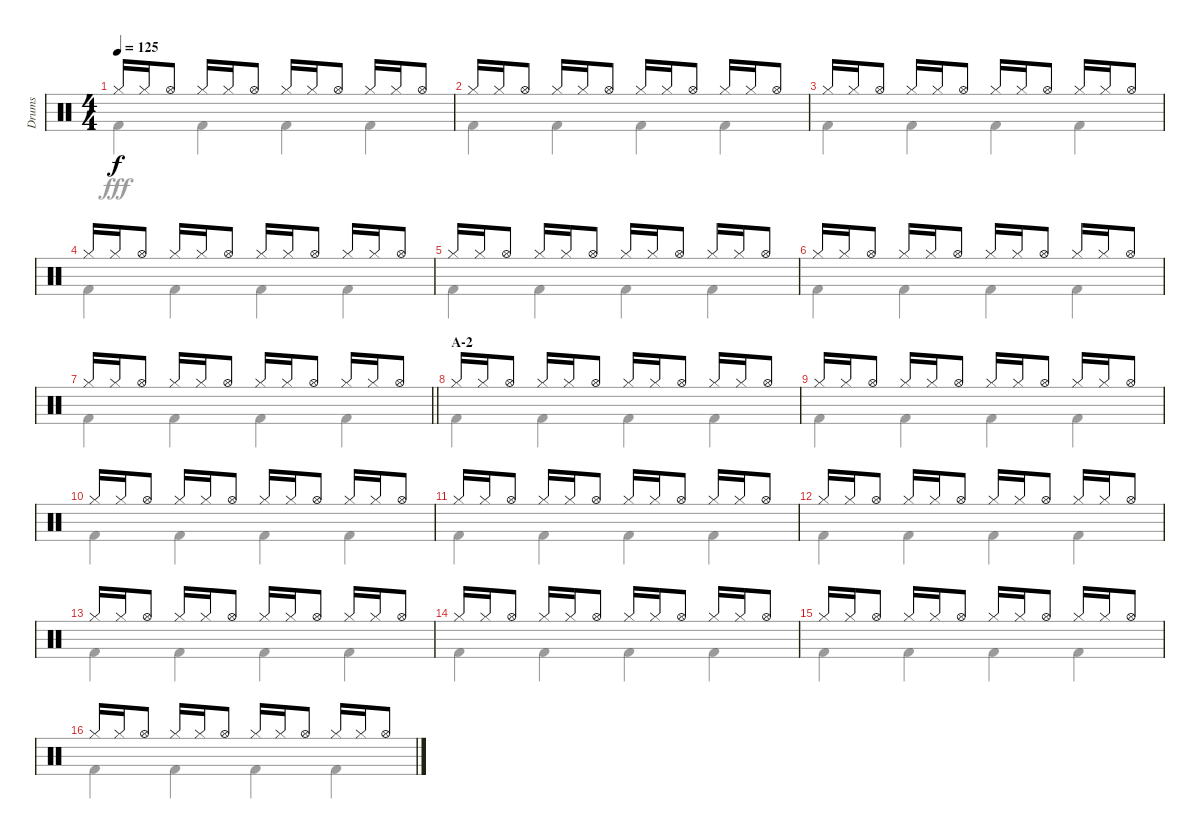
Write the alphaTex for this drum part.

\track ("Drums" "Drums") {instrument percussion}
\staff {score}
\articulation defaults
\voice
\ts (4 4)
\tempo 125
\clef neutral
\ks c "Hi-Hat (closed)".16{dy f} "Hi-Hat (closed)".16 "Hi-Hat (open)".8 "Hi-Hat (closed)".16 "Hi-Hat (closed)".16 "Hi-Hat (open)".8 "Hi-Hat (closed)".16 "Hi-Hat (closed)".16 "Hi-Hat (open)".8 "Hi-Hat (closed)".16 "Hi-Hat (closed)".16 "Hi-Hat (open)".8
|
"Hi-Hat (closed)".16 "Hi-Hat (closed)".16 "Hi-Hat (open)".8 "Hi-Hat (closed)".16 "Hi-Hat (closed)".16 "Hi-Hat (open)".8 "Hi-Hat (closed)".16 "Hi-Hat (closed)".16 "Hi-Hat (open)".8 "Hi-Hat (closed)".16 "Hi-Hat (closed)".16 "Hi-Hat (open)".8 |
"Hi-Hat (closed)".16 "Hi-Hat (closed)".16 "Hi-Hat (open)".8 "Hi-Hat (closed)".16 "Hi-Hat (closed)".16 "Hi-Hat (open)".8 "Hi-Hat (closed)".16 "Hi-Hat (closed)".16 "Hi-Hat (open)".8 "Hi-Hat (closed)".16 "Hi-Hat (closed)".16 "Hi-Hat (open)".8 |
"Hi-Hat (closed)".16 "Hi-Hat (closed)".16 "Hi-Hat (open)".8 "Hi-Hat (closed)".16 "Hi-Hat (closed)".16 "Hi-Hat (open)".8 "Hi-Hat (closed)".16 "Hi-Hat (closed)".16 "Hi-Hat (open)".8 "Hi-Hat (closed)".16 "Hi-Hat (closed)".16 "Hi-Hat (open)".8 |
"Hi-Hat (closed)".16 "Hi-Hat (closed)".16 "Hi-Hat (open)".8 "Hi-Hat (closed)".16 "Hi-Hat (closed)".16 "Hi-Hat (open)".8 "Hi-Hat (closed)".16 "Hi-Hat (closed)".16 "Hi-Hat (open)".8 "Hi-Hat (closed)".16 "Hi-Hat (closed)".16 "Hi-Hat (open)".8 |
"Hi-Hat (closed)".16 "Hi-Hat (closed)".16 "Hi-Hat (open)".8 "Hi-Hat (closed)".16 "Hi-Hat (closed)".16 "Hi-Hat (open)".8 "Hi-Hat (closed)".16 "Hi-Hat (closed)".16 "Hi-Hat (open)".8 "Hi-Hat (closed)".16 "Hi-Hat (closed)".16 "Hi-Hat (open)".8 |
\barLineRight lightlight "Hi-Hat (closed)".16 "Hi-Hat (closed)".16 "Hi-Hat (open)".8 "Hi-Hat (closed)".16 "Hi-Hat (closed)".16 "Hi-Hat (open)".8 "Hi-Hat (closed)".16 "Hi-Hat (closed)".16 "Hi-Hat (open)".8 "Hi-Hat (closed)".16 "Hi-Hat (closed)".16 "Hi-Hat (open)".8
|
\section ("" "A-2")
"Hi-Hat (closed)".16 "Hi-Hat (closed)".16 "Hi-Hat (open)".8 "Hi-Hat (closed)".16 "Hi-Hat (closed)".16 "Hi-Hat (open)".8 "Hi-Hat (closed)".16 "Hi-Hat (closed)".16 "Hi-Hat (open)".8 "Hi-Hat (closed)".16 "Hi-Hat (closed)".16 "Hi-Hat (open)".8 |
"Hi-Hat (closed)".16 "Hi-Hat (closed)".16 "Hi-Hat (open)".8 "Hi-Hat (closed)".16 "Hi-Hat (closed)".16 "Hi-Hat (open)".8 "Hi-Hat (closed)".16 "Hi-Hat (closed)".16 "Hi-Hat (open)".8 "Hi-Hat (closed)".16 "Hi-Hat (closed)".16 "Hi-Hat (open)".8 |
"Hi-Hat (closed)".16 "Hi-Hat (closed)".16 "Hi-Hat (open)".8 "Hi-Hat (closed)".16 "Hi-Hat (closed)".16 "Hi-Hat (open)".8 "Hi-Hat (closed)".16 "Hi-Hat (closed)".16 "Hi-Hat (open)".8 "Hi-Hat (closed)".16 "Hi-Hat (closed)".16 "Hi-Hat (open)".8 |
"Hi-Hat (closed)".16 "Hi-Hat (closed)".16 "Hi-Hat (open)".8 "Hi-Hat (closed)".16 "Hi-Hat (closed)".16 "Hi-Hat (open)".8 "Hi-Hat (closed)".16 "Hi-Hat (closed)".16 "Hi-Hat (open)".8 "Hi-Hat (closed)".16 "Hi-Hat (closed)".16 "Hi-Hat (open)".8 |
"Hi-Hat (closed)".16 "Hi-Hat (closed)".16 "Hi-Hat (open)".8 "Hi-Hat (closed)".16 "Hi-Hat (closed)".16 "Hi-Hat (open)".8 "Hi-Hat (closed)".16 "Hi-Hat (closed)".16 "Hi-Hat (open)".8 "Hi-Hat (closed)".16 "Hi-Hat (closed)".16 "Hi-Hat (open)".8 |
"Hi-Hat (closed)".16 "Hi-Hat (closed)".16 "Hi-Hat (open)".8 "Hi-Hat (closed)".16 "Hi-Hat (closed)".16 "Hi-Hat (open)".8 "Hi-Hat (closed)".16 "Hi-Hat (closed)".16 "Hi-Hat (open)".8 "Hi-Hat (closed)".16 "Hi-Hat (closed)".16 "Hi-Hat (open)".8 |
"Hi-Hat (closed)".16 "Hi-Hat (closed)".16 "Hi-Hat (open)".8 "Hi-Hat (closed)".16 "Hi-Hat (closed)".16 "Hi-Hat (open)".8 "Hi-Hat (closed)".16 "Hi-Hat (closed)".16 "Hi-Hat (open)".8 "Hi-Hat (closed)".16 "Hi-Hat (closed)".16 "Hi-Hat (open)".8 |
"Hi-Hat (closed)".16 "Hi-Hat (closed)".16 "Hi-Hat (open)".8 "Hi-Hat (closed)".16 "Hi-Hat (closed)".16 "Hi-Hat (open)".8 "Hi-Hat (closed)".16 "Hi-Hat (closed)".16 "Hi-Hat (open)".8 "Hi-Hat (closed)".16 "Hi-Hat (closed)".16 "Hi-Hat (open)".8 |
"Hi-Hat (closed)".16 "Hi-Hat (closed)".16 "Hi-Hat (open)".8 "Hi-Hat (closed)".16 "Hi-Hat (closed)".16 "Hi-Hat (open)".8 "Hi-Hat (closed)".16 "Hi-Hat (closed)".16 "Hi-Hat (open)".8 "Hi-Hat (closed)".16 "Hi-Hat (closed)".16 "Hi-Hat (open)".8
\voice
\clef neutral
\ottava regular
\simile none
\ks c "Kick (hit) 2".4{dy fff} "Kick (hit) 2".4 "Kick (hit) 2".4 "Kick (hit) 2".4
|
"Kick (hit) 2".4 "Kick (hit) 2".4 "Kick (hit) 2".4 "Kick (hit) 2".4 |
"Kick (hit) 2".4 "Kick (hit) 2".4 "Kick (hit) 2".4 "Kick (hit) 2".4 |
"Kick (hit) 2".4 "Kick (hit) 2".4 "Kick (hit) 2".4 "Kick (hit) 2".4 |
"Kick (hit) 2".4 "Kick (hit) 2".4 "Kick (hit) 2".4 "Kick (hit) 2".4 |
"Kick (hit) 2".4 "Kick (hit) 2".4 "Kick (hit) 2".4 "Kick (hit) 2".4 |
\barLineRight lightlight "Kick (hit) 2".4 "Kick (hit) 2".4 "Kick (hit) 2".4 "Kick (hit) 2".4
|
"Kick (hit) 2".4 "Kick (hit) 2".4 "Kick (hit) 2".4 "Kick (hit) 2".4 |
"Kick (hit) 2".4 "Kick (hit) 2".4 "Kick (hit) 2".4 "Kick (hit) 2".4 |
"Kick (hit) 2".4 "Kick (hit) 2".4 "Kick (hit) 2".4 "Kick (hit) 2".4 |
"Kick (hit) 2".4 "Kick (hit) 2".4 "Kick (hit) 2".4 "Kick (hit) 2".4 |
"Kick (hit) 2".4 "Kick (hit) 2".4 "Kick (hit) 2".4 "Kick (hit) 2".4 |
"Kick (hit) 2".4 "Kick (hit) 2".4 "Kick (hit) 2".4 "Kick (hit) 2".4 |
"Kick (hit) 2".4 "Kick (hit) 2".4 "Kick (hit) 2".4 "Kick (hit) 2".4 |
"Kick (hit) 2".4 "Kick (hit) 2".4 "Kick (hit) 2".4 "Kick (hit) 2".4 |
"Kick (hit) 2".4 "Kick (hit) 2".4 "Kick (hit) 2".4 "Kick (hit) 2".4
